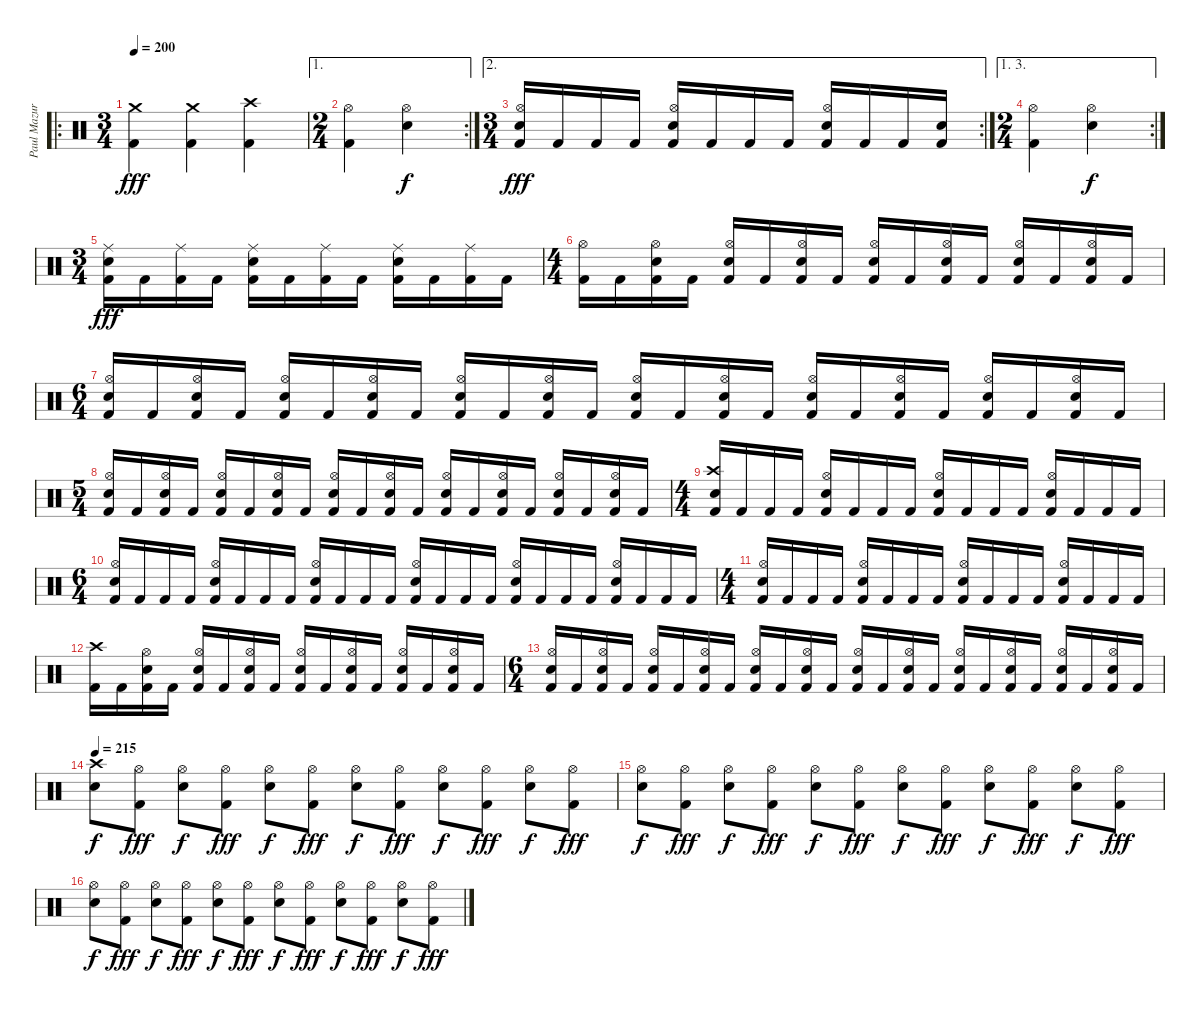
\track ("Paul Mazurkiewicz" "Paul Mazur") {instrument percussion}
\staff {score}
\articulation defaults
\ro
\ts (3 4)
\tempo 200
\clef neutral
\ks c
("Crash medium (hit)" "Kick (hit) 2").4{dy fff} ("Crash medium (hit)" "Kick (hit) 2").4 ("Crash high (hit)" "Kick (hit) 2").4 |
\ae 1
\rc 2
\ts (2 4)
("Hi-Hat (open)" "Kick (hit) 2").4 ("Hi-Hat (open)" "Electric Snare (hit)").4{dy f} |
\ae 2
\rc 2
\ts (3 4)
("Hi-Hat (open)" "Electric Snare (hit)" "Kick (hit) 2").16{dy fff} "Kick (hit) 2".16 "Kick (hit) 2".16 "Kick (hit) 2".16 ("Hi-Hat (open)" "Electric Snare (hit)" "Kick (hit) 2").16 "Kick (hit) 2".16 "Kick (hit) 2".16 "Kick (hit) 2".16 ("Hi-Hat (open)" "Electric Snare (hit)" "Kick (hit) 2").16 "Kick (hit) 2".16 "Kick (hit) 2".16 ("Electric Snare (hit)" "Kick (hit) 2").16 |
\ae (1 3)
\rc 2
\ts (2 4)
("Hi-Hat (open)" "Kick (hit) 2").4 ("Hi-Hat (open)" "Electric Snare (hit)").4{dy f} |
\ts (3 4)
("Ride (middle)" "Electric Snare (hit)" "Kick (hit) 2").16{dy fff} "Kick (hit) 2".16 ("Ride (middle)" "Kick (hit) 2").16 "Kick (hit) 2".16 ("Ride (middle)" "Electric Snare (hit)" "Kick (hit) 2").16 "Kick (hit) 2".16 ("Ride (middle)" "Kick (hit) 2").16 "Kick (hit) 2".16 ("Ride (middle)" "Electric Snare (hit)" "Kick (hit) 2").16 "Kick (hit) 2".16 ("Ride (middle)" "Kick (hit) 2").16 "Kick (hit) 2".16 |
\ts (4 4)
("Hi-Hat (open)" "Kick (hit) 2").16 "Kick (hit) 2".16 ("Hi-Hat (open)" "Electric Snare (hit)" "Kick (hit) 2").16 "Kick (hit) 2".16 ("Hi-Hat (open)" "Electric Snare (hit)" "Kick (hit) 2").16 "Kick (hit) 2".16 ("Hi-Hat (open)" "Electric Snare (hit)" "Kick (hit) 2").16 "Kick (hit) 2".16 ("Hi-Hat (open)" "Electric Snare (hit)" "Kick (hit) 2").16 "Kick (hit) 2".16 ("Hi-Hat (open)" "Electric Snare (hit)" "Kick (hit) 2").16 "Kick (hit) 2".16 ("Hi-Hat (open)" "Electric Snare (hit)" "Kick (hit) 2").16 "Kick (hit) 2".16 ("Hi-Hat (open)" "Electric Snare (hit)" "Kick (hit) 2").16 "Kick (hit) 2".16 |
\ts (6 4)
("Hi-Hat (open)" "Electric Snare (hit)" "Kick (hit) 2").16 "Kick (hit) 2".16 ("Hi-Hat (open)" "Electric Snare (hit)" "Kick (hit) 2").16 "Kick (hit) 2".16 ("Hi-Hat (open)" "Electric Snare (hit)" "Kick (hit) 2").16 "Kick (hit) 2".16 ("Hi-Hat (open)" "Electric Snare (hit)" "Kick (hit) 2").16 "Kick (hit) 2".16 ("Hi-Hat (open)" "Electric Snare (hit)" "Kick (hit) 2").16 "Kick (hit) 2".16 ("Hi-Hat (open)" "Electric Snare (hit)" "Kick (hit) 2").16 "Kick (hit) 2".16 ("Hi-Hat (open)" "Electric Snare (hit)" "Kick (hit) 2").16 "Kick (hit) 2".16 ("Hi-Hat (open)" "Electric Snare (hit)" "Kick (hit) 2").16 "Kick (hit) 2".16 ("Hi-Hat (open)" "Electric Snare (hit)" "Kick (hit) 2").16 "Kick (hit) 2".16 ("Hi-Hat (open)" "Electric Snare (hit)" "Kick (hit) 2").16 "Kick (hit) 2".16 ("Hi-Hat (open)" "Electric Snare (hit)" "Kick (hit) 2").16 "Kick (hit) 2".16 ("Hi-Hat (open)" "Electric Snare (hit)" "Kick (hit) 2").16 "Kick (hit) 2".16 |
\ts (5 4)
("Hi-Hat (open)" "Electric Snare (hit)" "Kick (hit) 2").16 "Kick (hit) 2".16 ("Hi-Hat (open)" "Electric Snare (hit)" "Kick (hit) 2").16 "Kick (hit) 2".16 ("Hi-Hat (open)" "Electric Snare (hit)" "Kick (hit) 2").16 "Kick (hit) 2".16 ("Hi-Hat (open)" "Electric Snare (hit)" "Kick (hit) 2").16 "Kick (hit) 2".16 ("Hi-Hat (open)" "Electric Snare (hit)" "Kick (hit) 2").16 "Kick (hit) 2".16 ("Hi-Hat (open)" "Electric Snare (hit)" "Kick (hit) 2").16 "Kick (hit) 2".16 ("Hi-Hat (open)" "Electric Snare (hit)" "Kick (hit) 2").16 "Kick (hit) 2".16 ("Hi-Hat (open)" "Electric Snare (hit)" "Kick (hit) 2").16 "Kick (hit) 2".16 ("Hi-Hat (open)" "Electric Snare (hit)" "Kick (hit) 2").16 "Kick (hit) 2".16 ("Hi-Hat (open)" "Electric Snare (hit)" "Kick (hit) 2").16 "Kick (hit) 2".16 |
\ts (4 4)
("Crash high (hit)" "Electric Snare (hit)" "Kick (hit) 2").16 "Kick (hit) 2".16 "Kick (hit) 2".16 "Kick (hit) 2".16 ("Hi-Hat (open)" "Electric Snare (hit)" "Kick (hit) 2").16 "Kick (hit) 2".16 "Kick (hit) 2".16 "Kick (hit) 2".16 ("Hi-Hat (open)" "Electric Snare (hit)" "Kick (hit) 2").16 "Kick (hit) 2".16 "Kick (hit) 2".16 "Kick (hit) 2".16 ("Hi-Hat (open)" "Electric Snare (hit)" "Kick (hit) 2").16 "Kick (hit) 2".16 "Kick (hit) 2".16 "Kick (hit) 2".16 |
\ts (6 4)
("Hi-Hat (open)" "Electric Snare (hit)" "Kick (hit) 2").16 "Kick (hit) 2".16 "Kick (hit) 2".16 "Kick (hit) 2".16 ("Hi-Hat (open)" "Electric Snare (hit)" "Kick (hit) 2").16 "Kick (hit) 2".16 "Kick (hit) 2".16 "Kick (hit) 2".16 ("Hi-Hat (open)" "Electric Snare (hit)" "Kick (hit) 2").16 "Kick (hit) 2".16 "Kick (hit) 2".16 "Kick (hit) 2".16 ("Hi-Hat (open)" "Electric Snare (hit)" "Kick (hit) 2").16 "Kick (hit) 2".16 "Kick (hit) 2".16 "Kick (hit) 2".16 ("Hi-Hat (open)" "Electric Snare (hit)" "Kick (hit) 2").16 "Kick (hit) 2".16 "Kick (hit) 2".16 "Kick (hit) 2".16 ("Hi-Hat (open)" "Electric Snare (hit)" "Kick (hit) 2").16 "Kick (hit) 2".16 "Kick (hit) 2".16 "Kick (hit) 2".16 |
\ts (4 4)
("Hi-Hat (open)" "Electric Snare (hit)" "Kick (hit) 2").16 "Kick (hit) 2".16 "Kick (hit) 2".16 "Kick (hit) 2".16 ("Hi-Hat (open)" "Electric Snare (hit)" "Kick (hit) 2").16 "Kick (hit) 2".16 "Kick (hit) 2".16 "Kick (hit) 2".16 ("Hi-Hat (open)" "Electric Snare (hit)" "Kick (hit) 2").16 "Kick (hit) 2".16 "Kick (hit) 2".16 "Kick (hit) 2".16 ("Hi-Hat (open)" "Electric Snare (hit)" "Kick (hit) 2").16 "Kick (hit) 2".16 "Kick (hit) 2".16 "Kick (hit) 2".16 |
("Crash high (hit)" "Kick (hit) 2").16 "Kick (hit) 2".16 ("Hi-Hat (open)" "Electric Snare (hit)" "Kick (hit) 2").16 "Kick (hit) 2".16 ("Hi-Hat (open)" "Electric Snare (hit)" "Kick (hit) 2").16 "Kick (hit) 2".16 ("Hi-Hat (open)" "Electric Snare (hit)" "Kick (hit) 2").16 "Kick (hit) 2".16 ("Hi-Hat (open)" "Electric Snare (hit)" "Kick (hit) 2").16 "Kick (hit) 2".16 ("Hi-Hat (open)" "Electric Snare (hit)" "Kick (hit) 2").16 "Kick (hit) 2".16 ("Hi-Hat (open)" "Electric Snare (hit)" "Kick (hit) 2").16 "Kick (hit) 2".16 ("Hi-Hat (open)" "Electric Snare (hit)" "Kick (hit) 2").16 "Kick (hit) 2".16 |
\ts (6 4)
("Hi-Hat (open)" "Electric Snare (hit)" "Kick (hit) 2").16 "Kick (hit) 2".16 ("Hi-Hat (open)" "Electric Snare (hit)" "Kick (hit) 2").16 "Kick (hit) 2".16 ("Hi-Hat (open)" "Electric Snare (hit)" "Kick (hit) 2").16 "Kick (hit) 2".16 ("Hi-Hat (open)" "Electric Snare (hit)" "Kick (hit) 2").16 "Kick (hit) 2".16 ("Hi-Hat (open)" "Electric Snare (hit)" "Kick (hit) 2").16 "Kick (hit) 2".16 ("Hi-Hat (open)" "Electric Snare (hit)" "Kick (hit) 2").16 "Kick (hit) 2".16 ("Hi-Hat (open)" "Electric Snare (hit)" "Kick (hit) 2").16 "Kick (hit) 2".16 ("Hi-Hat (open)" "Electric Snare (hit)" "Kick (hit) 2").16 "Kick (hit) 2".16 ("Hi-Hat (open)" "Electric Snare (hit)" "Kick (hit) 2").16 "Kick (hit) 2".16 ("Hi-Hat (open)" "Electric Snare (hit)" "Kick (hit) 2").16 "Kick (hit) 2".16 ("Hi-Hat (open)" "Electric Snare (hit)" "Kick (hit) 2").16 "Kick (hit) 2".16 ("Hi-Hat (open)" "Electric Snare (hit)" "Kick (hit) 2").16 "Kick (hit) 2".16 |
\tempo 215
("Crash high (hit)" "Electric Snare (hit)").8{dy f} ("Hi-Hat (open)" "Kick (hit) 2").8{dy fff} ("Hi-Hat (open)" "Electric Snare (hit)").8{dy f} ("Hi-Hat (open)" "Kick (hit) 2").8{dy fff} ("Hi-Hat (open)" "Electric Snare (hit)").8{dy f} ("Hi-Hat (open)" "Kick (hit) 2").8{dy fff} ("Hi-Hat (open)" "Electric Snare (hit)").8{dy f} ("Hi-Hat (open)" "Kick (hit) 2").8{dy fff} ("Hi-Hat (open)" "Electric Snare (hit)").8{dy f} ("Hi-Hat (open)" "Kick (hit) 2").8{dy fff} ("Hi-Hat (open)" "Electric Snare (hit)").8{dy f} ("Hi-Hat (open)" "Kick (hit) 2").8{dy fff} |
("Hi-Hat (open)" "Electric Snare (hit)").8{dy f} ("Hi-Hat (open)" "Kick (hit) 2").8{dy fff} ("Hi-Hat (open)" "Electric Snare (hit)").8{dy f} ("Hi-Hat (open)" "Kick (hit) 2").8{dy fff} ("Hi-Hat (open)" "Electric Snare (hit)").8{dy f} ("Hi-Hat (open)" "Kick (hit) 2").8{dy fff} ("Hi-Hat (open)" "Electric Snare (hit)").8{dy f} ("Hi-Hat (open)" "Kick (hit) 2").8{dy fff} ("Hi-Hat (open)" "Electric Snare (hit)").8{dy f} ("Hi-Hat (open)" "Kick (hit) 2").8{dy fff} ("Hi-Hat (open)" "Electric Snare (hit)").8{dy f} ("Hi-Hat (open)" "Kick (hit) 2").8{dy fff} |
("Hi-Hat (open)" "Electric Snare (hit)").8{dy f} ("Hi-Hat (open)" "Kick (hit) 2").8{dy fff} ("Hi-Hat (open)" "Electric Snare (hit)").8{dy f} ("Hi-Hat (open)" "Kick (hit) 2").8{dy fff} ("Hi-Hat (open)" "Electric Snare (hit)").8{dy f} ("Hi-Hat (open)" "Kick (hit) 2").8{dy fff} ("Hi-Hat (open)" "Electric Snare (hit)").8{dy f} ("Hi-Hat (open)" "Kick (hit) 2").8{dy fff} ("Hi-Hat (open)" "Electric Snare (hit)").8{dy f} ("Hi-Hat (open)" "Kick (hit) 2").8{dy fff} ("Hi-Hat (open)" "Electric Snare (hit)").8{dy f} ("Hi-Hat (open)" "Kick (hit) 2").8{dy fff}
